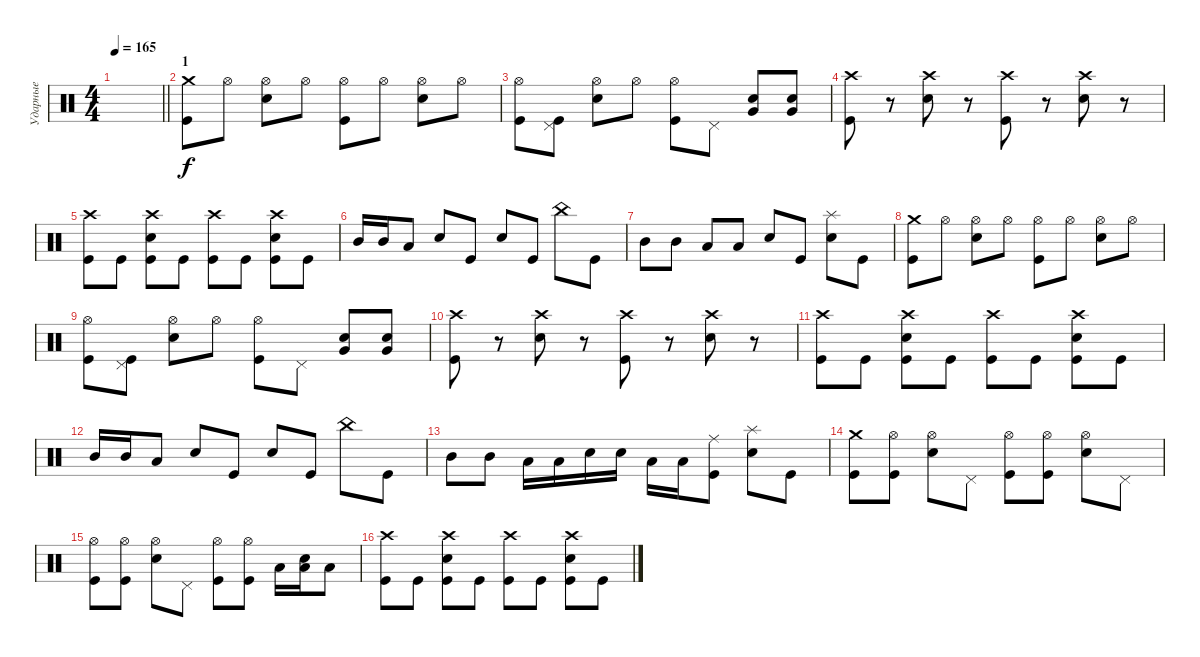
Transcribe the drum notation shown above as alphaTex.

\track ("Ударные" "Ударные") {instrument percussion}
\staff {score}
\articulation defaults
\ts (4 4)
\tempo 165
\clef neutral
\barLineRight lightlight
\ks c
|
\section ("" "1")
("Crash medium (hit)" "Kick (hit)").8 "Hi-Hat (open)".8 ("Hi-Hat (open)" "Electric Snare (hit)").8 "Hi-Hat (open)".8 ("Hi-Hat (open)" "Kick (hit)").8 "Hi-Hat (open)".8 ("Hi-Hat (open)" "Electric Snare (hit)").8 "Hi-Hat (open)".8 |
("Hi-Hat (open)" "Kick (hit)").8 ("Pedal Hi-Hat (hit)" "Kick (hit)").8 ("Hi-Hat (open)" "Electric Snare (hit)").8 "Hi-Hat (open)".8 ("Hi-Hat (open)" "Kick (hit)").8 "Pedal Hi-Hat (hit)".8 ("Very Low Tom (hit)" "Electric Snare (hit)").8 ("Very Low Tom (hit)" "Electric Snare (hit)").8 |
("Crash high (hit)" "Kick (hit)").8 r.8 ("Crash high (hit)" "Electric Snare (hit)").8 r.8 ("Crash high (hit)" "Kick (hit)").8 r.8 ("Crash high (hit)" "Electric Snare (hit)").8 r.8 |
("Crash high (hit)" "Kick (hit)").8 "Kick (hit)".8 ("Crash high (hit)" "Electric Snare (hit)" "Kick (hit)").8 "Kick (hit)".8 ("Crash high (hit)" "Kick (hit)").8 "Kick (hit)".8 ("Crash high (hit)" "Electric Snare (hit)" "Kick (hit)").8 "Kick (hit)".8 |
"Mid Tom (hit)".16 "Mid Tom (hit)".16 "Low Tom (hit)".8 "Electric Snare (hit)".8 "Kick (hit)".8 "Electric Snare (hit)".8 "Kick (hit)".8 "China (hit)".8 "Kick (hit)".8 |
"Mid Tom (hit)".8 "Mid Tom (hit)".8 "Low Tom (hit)".8 "Low Tom (hit)".8 "Electric Snare (hit)".8 "Kick (hit)".8 ("Splash (hit)" "Electric Snare (hit)").8 "Kick (hit)".8 |
("Crash medium (hit)" "Kick (hit)").8 "Hi-Hat (open)".8 ("Hi-Hat (open)" "Electric Snare (hit)").8 "Hi-Hat (open)".8 ("Hi-Hat (open)" "Kick (hit)").8 "Hi-Hat (open)".8 ("Hi-Hat (open)" "Electric Snare (hit)").8 "Hi-Hat (open)".8 |
("Hi-Hat (open)" "Kick (hit)").8 ("Pedal Hi-Hat (hit)" "Kick (hit)").8 ("Hi-Hat (open)" "Electric Snare (hit)").8 "Hi-Hat (open)".8 ("Hi-Hat (open)" "Kick (hit)").8 "Pedal Hi-Hat (hit)".8 ("Very Low Tom (hit)" "Electric Snare (hit)").8 ("Very Low Tom (hit)" "Electric Snare (hit)").8 |
("Crash high (hit)" "Kick (hit)").8 r.8 ("Crash high (hit)" "Electric Snare (hit)").8 r.8 ("Crash high (hit)" "Kick (hit)").8 r.8 ("Crash high (hit)" "Electric Snare (hit)").8 r.8 |
("Crash high (hit)" "Kick (hit)").8 "Kick (hit)".8 ("Crash high (hit)" "Electric Snare (hit)" "Kick (hit)").8 "Kick (hit)".8 ("Crash high (hit)" "Kick (hit)").8 "Kick (hit)".8 ("Crash high (hit)" "Electric Snare (hit)" "Kick (hit)").8 "Kick (hit)".8 |
"Mid Tom (hit)".16 "Mid Tom (hit)".16 "Low Tom (hit)".8 "Electric Snare (hit)".8 "Kick (hit)".8 "Electric Snare (hit)".8 "Kick (hit)".8 "China (hit)".8 "Kick (hit)".8 |
"Mid Tom (hit)".8 "Mid Tom (hit)".8 "Low Tom (hit)".16 "Low Tom (hit)".16 "Electric Snare (hit)".16 "Electric Snare (hit)".16 "Low Tom (hit)".16 "Low Tom (hit)".16 ("Ride (middle)" "Kick (hit)").8 ("Splash (hit)" "Electric Snare (hit)").8 "Kick (hit)".8 |
("Crash medium (hit)" "Kick (hit)").8 ("Hi-Hat (open)" "Kick (hit)").8 ("Hi-Hat (open)" "Electric Snare (hit)").8 "Pedal Hi-Hat (hit)".8 ("Hi-Hat (open)" "Kick (hit)").8 ("Hi-Hat (open)" "Kick (hit)").8 ("Hi-Hat (open)" "Electric Snare (hit)").8 "Pedal Hi-Hat (hit)".8 |
("Hi-Hat (open)" "Kick (hit)").8 ("Hi-Hat (open)" "Kick (hit)").8 ("Hi-Hat (open)" "Electric Snare (hit)").8 "Pedal Hi-Hat (hit)".8 ("Hi-Hat (open)" "Kick (hit)").8 ("Hi-Hat (open)" "Kick (hit)").8 "Low Tom (hit)".16 ("Low Tom (hit)" "Electric Snare (hit)").16 "Low Tom (hit)".8 |
("Crash high (hit)" "Kick (hit)").8 "Kick (hit)".8 ("Crash high (hit)" "Electric Snare (hit)" "Kick (hit)").8 "Kick (hit)".8 ("Crash high (hit)" "Kick (hit)").8 "Kick (hit)".8 ("Crash high (hit)" "Electric Snare (hit)" "Kick (hit)").8 "Kick (hit)".8
